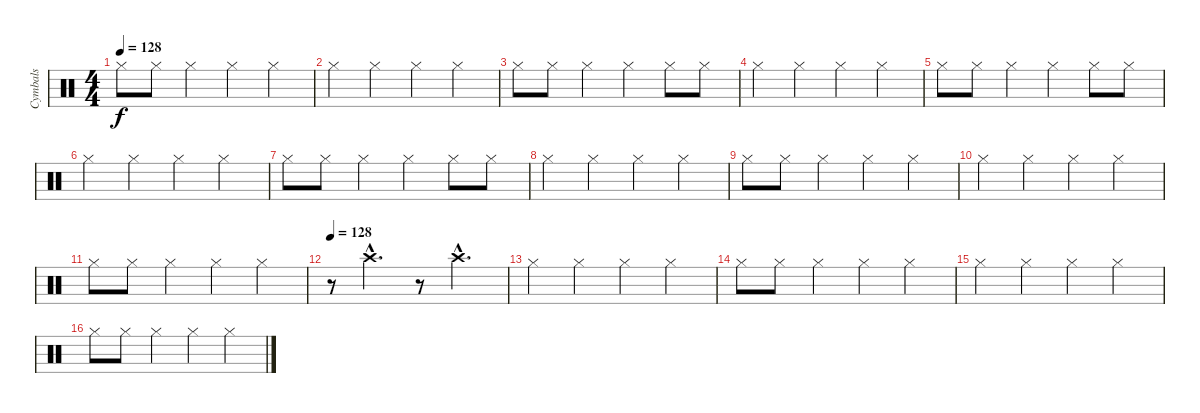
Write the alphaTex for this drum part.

\track ("Cymbals" "Cymbals") {instrument percussion}
\staff {score}
\articulation defaults
\ts (4 4)
\tempo 128
\clef neutral
\ks c "Hi-Hat (closed)".8{dy f} "Hi-Hat (closed)".8 "Hi-Hat (closed)".4 "Hi-Hat (closed)".4 "Hi-Hat (closed)".4
|
"Hi-Hat (closed)".4 "Hi-Hat (closed)".4 "Hi-Hat (closed)".4 "Hi-Hat (closed)".4 |
"Hi-Hat (closed)".8 "Hi-Hat (closed)".8 "Hi-Hat (closed)".4 "Hi-Hat (closed)".4 "Hi-Hat (closed)".8 "Hi-Hat (closed)".8 |
"Hi-Hat (closed)".4 "Hi-Hat (closed)".4 "Hi-Hat (closed)".4 "Hi-Hat (closed)".4 |
"Hi-Hat (closed)".8 "Hi-Hat (closed)".8 "Hi-Hat (closed)".4 "Hi-Hat (closed)".4 "Hi-Hat (closed)".8 "Hi-Hat (closed)".8 |
"Hi-Hat (closed)".4 "Hi-Hat (closed)".4 "Hi-Hat (closed)".4 "Hi-Hat (closed)".4 |
"Hi-Hat (closed)".8 "Hi-Hat (closed)".8 "Hi-Hat (closed)".4 "Hi-Hat (closed)".4 "Hi-Hat (closed)".8 "Hi-Hat (closed)".8 |
"Hi-Hat (closed)".4 "Hi-Hat (closed)".4 "Hi-Hat (closed)".4 "Hi-Hat (closed)".4 |
"Hi-Hat (closed)".8 "Hi-Hat (closed)".8 "Hi-Hat (closed)".4 "Hi-Hat (closed)".4 "Hi-Hat (closed)".4 |
"Hi-Hat (closed)".4 "Hi-Hat (closed)".4 "Hi-Hat (closed)".4 "Hi-Hat (closed)".4 |
"Hi-Hat (closed)".8 "Hi-Hat (closed)".8 "Hi-Hat (closed)".4 "Hi-Hat (closed)".4 "Hi-Hat (closed)".4 |
\tempo 128
r.8 "Crash high (hit)"{hac}.4{d} r.8 "Crash high (hit)"{hac}.4{d} |
"Hi-Hat (closed)".4 "Hi-Hat (closed)".4 "Hi-Hat (closed)".4 "Hi-Hat (closed)".4 |
"Hi-Hat (closed)".8 "Hi-Hat (closed)".8 "Hi-Hat (closed)".4 "Hi-Hat (closed)".4 "Hi-Hat (closed)".4 |
"Hi-Hat (closed)".4 "Hi-Hat (closed)".4 "Hi-Hat (closed)".4 "Hi-Hat (closed)".4 |
"Hi-Hat (closed)".8 "Hi-Hat (closed)".8 "Hi-Hat (closed)".4 "Hi-Hat (closed)".4 "Hi-Hat (closed)".4
